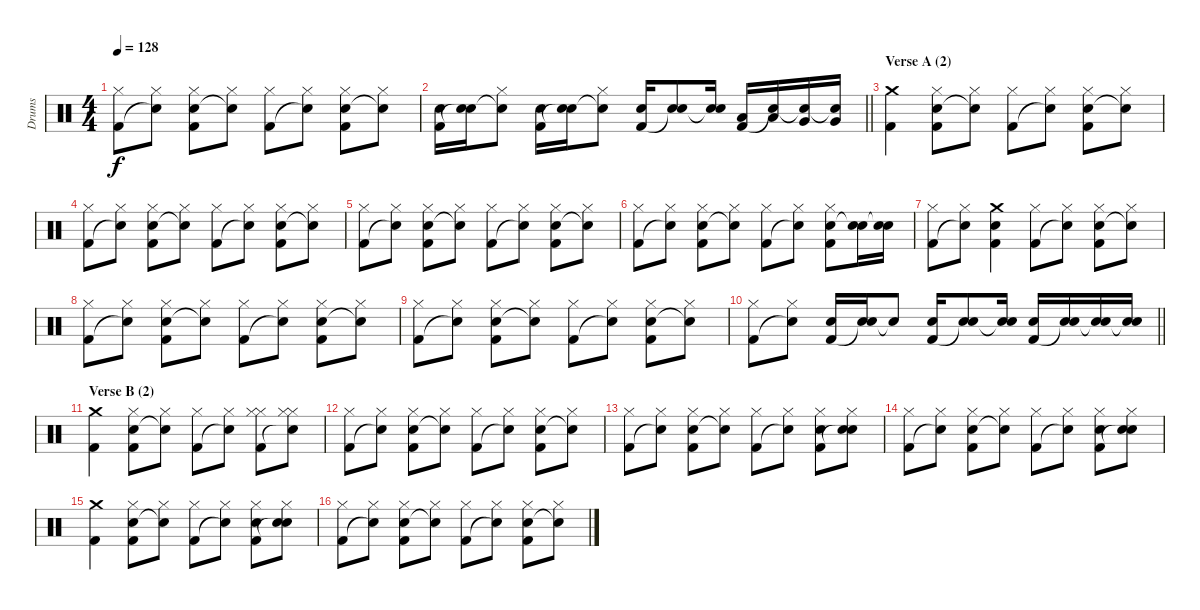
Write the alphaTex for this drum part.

\track ("Drums" "Drums") {instrument percussion}
\staff {score}
\articulation defaults
\ts (4 4)
\tempo 128
\clef neutral
\ks aminor
("Hi-Hat (closed)" "Kick (hit) 2").8{dy f} ("Hi-Hat (closed)" "Snare (hit)"{t}).8 ("Hi-Hat (closed)" "Electric Snare (hit)" "Kick (hit) 2").8 ("Hi-Hat (closed)" "Snare (hit)"{t}).8 ("Hi-Hat (closed)" "Kick (hit) 2").8 ("Hi-Hat (closed)" "Snare (hit)"{t}).8 ("Hi-Hat (closed)" "Electric Snare (hit)" "Kick (hit) 2").8 ("Hi-Hat (closed)" "Snare (hit)"{t}).8 |
\barLineRight lightlight
("Electric Snare (hit)" "Kick (hit) 2").16 ("Electric Snare (hit)" "Snare (hit)"{t}).16 ("Hi-Hat (closed)" "Snare (hit)"{t}).8 ("Electric Snare (hit)" "Kick (hit) 2").16 ("Electric Snare (hit)" "Snare (hit)"{t}).16 ("Hi-Hat (closed)" "Snare (hit)"{t}).8 ("Electric Snare (hit)" "Kick (hit) 2").16 ("Electric Snare (hit)" "Snare (hit)"{t}).8 ("Electric Snare (hit)" "Snare (hit)"{t}).16 ("Low Tom (hit)" "Kick (hit) 2").16 ("Low Tom (hit)" "Snare (hit)"{t}).16 ("Very Low Tom (hit)" "Snare (hit)"{t}).16 ("Very Low Tom (hit)" "Snare (hit)"{t}).16 |
\section ("" "Verse A (2)")
("Crash medium (hit)" "Kick (hit) 2").4 ("Hi-Hat (closed)" "Electric Snare (hit)" "Kick (hit) 2").8 ("Hi-Hat (closed)" "Snare (hit)"{t}).8 ("Hi-Hat (closed)" "Kick (hit) 2").8 ("Hi-Hat (closed)" "Snare (hit)"{t}).8 ("Hi-Hat (closed)" "Electric Snare (hit)" "Kick (hit) 2").8 ("Hi-Hat (closed)" "Snare (hit)"{t}).8 |
("Hi-Hat (closed)" "Kick (hit) 2").8 ("Hi-Hat (closed)" "Snare (hit)"{t}).8 ("Hi-Hat (closed)" "Electric Snare (hit)" "Kick (hit) 2").8 ("Hi-Hat (closed)" "Snare (hit)"{t}).8 ("Hi-Hat (closed)" "Kick (hit) 2").8 ("Hi-Hat (closed)" "Snare (hit)"{t}).8 ("Hi-Hat (closed)" "Electric Snare (hit)" "Kick (hit) 2").8 ("Hi-Hat (closed)" "Snare (hit)"{t}).8 |
("Hi-Hat (closed)" "Kick (hit) 2").8 ("Hi-Hat (closed)" "Snare (hit)"{t}).8 ("Hi-Hat (closed)" "Electric Snare (hit)" "Kick (hit) 2").8 ("Hi-Hat (closed)" "Snare (hit)"{t}).8 ("Hi-Hat (closed)" "Kick (hit) 2").8 ("Hi-Hat (closed)" "Snare (hit)"{t}).8 ("Hi-Hat (closed)" "Electric Snare (hit)" "Kick (hit) 2").8 ("Hi-Hat (closed)" "Snare (hit)"{t}).8 |
("Hi-Hat (closed)" "Kick (hit) 2").8 ("Hi-Hat (closed)" "Snare (hit)"{t}).8 ("Hi-Hat (closed)" "Electric Snare (hit)" "Kick (hit) 2").8 ("Hi-Hat (closed)" "Snare (hit)"{t}).8 ("Hi-Hat (closed)" "Kick (hit) 2").8 ("Hi-Hat (closed)" "Snare (hit)"{t}).8 ("Hi-Hat (closed)" "Electric Snare (hit)" "Kick (hit) 2").8 ("Electric Snare (hit)" "Snare (hit)"{t}).16 ("Electric Snare (hit)" "Snare (hit)"{t}).16 |
("Hi-Hat (closed)" "Kick (hit) 2").8 ("Hi-Hat (closed)" "Snare (hit)"{t}).8 ("Crash medium (hit)" "Electric Snare (hit)" "Kick (hit) 2").4 ("Hi-Hat (closed)" "Kick (hit) 2").8 ("Hi-Hat (closed)" "Snare (hit)"{t}).8 ("Hi-Hat (closed)" "Electric Snare (hit)" "Kick (hit) 2").8 ("Hi-Hat (closed)" "Snare (hit)"{t}).8 |
("Hi-Hat (closed)" "Kick (hit) 2").8 ("Hi-Hat (closed)" "Snare (hit)"{t}).8 ("Hi-Hat (closed)" "Electric Snare (hit)" "Kick (hit) 2").8 ("Hi-Hat (closed)" "Snare (hit)"{t}).8 ("Hi-Hat (closed)" "Kick (hit) 2").8 ("Hi-Hat (closed)" "Snare (hit)"{t}).8 ("Hi-Hat (closed)" "Electric Snare (hit)" "Kick (hit) 2").8 ("Hi-Hat (closed)" "Snare (hit)"{t}).8 |
("Hi-Hat (closed)" "Kick (hit) 2").8 ("Hi-Hat (closed)" "Snare (hit)"{t}).8 ("Hi-Hat (closed)" "Electric Snare (hit)" "Kick (hit) 2").8 ("Hi-Hat (closed)" "Snare (hit)"{t}).8 ("Hi-Hat (closed)" "Kick (hit) 2").8 ("Hi-Hat (closed)" "Snare (hit)"{t}).8 ("Hi-Hat (closed)" "Electric Snare (hit)" "Kick (hit) 2").8 ("Hi-Hat (closed)" "Snare (hit)"{t}).8 |
\barLineRight lightlight
("Hi-Hat (closed)" "Kick (hit) 2").8 ("Hi-Hat (closed)" "Snare (hit)"{t}).8 ("Electric Snare (hit)" "Kick (hit) 2").16 ("Electric Snare (hit)" "Snare (hit)"{t}).16 "Snare (hit)"{t}.8 ("Electric Snare (hit)" "Kick (hit) 2").16 ("Electric Snare (hit)" "Snare (hit)"{t}).8 ("Electric Snare (hit)" "Snare (hit)"{t}).16 ("Electric Snare (hit)" "Kick (hit) 2").16 ("Electric Snare (hit)" "Snare (hit)"{t}).16 ("Electric Snare (hit)" "Snare (hit)"{t}).16 ("Electric Snare (hit)" "Snare (hit)"{t}).16 |
\section ("" "Verse B (2)")
("Crash medium (hit)" "Kick (hit) 2").4 ("Hi-Hat (closed)" "Electric Snare (hit)" "Kick (hit) 2").8 ("Hi-Hat (closed)" "Snare (hit)"{t}).8 ("Hi-Hat (closed)" "Kick (hit) 2").8 ("Hi-Hat (closed)" "Snare (hit)"{t}).8 ("Hi-Hat (closed)" "Hi-Hat (closed)" "Kick (hit) 2").8 ("Hi-Hat (closed)" "Hi-Hat (closed)" "Snare (hit)"{t}).8 |
("Hi-Hat (closed)" "Kick (hit) 2").8 ("Hi-Hat (closed)" "Snare (hit)"{t}).8 ("Hi-Hat (closed)" "Electric Snare (hit)" "Kick (hit) 2").8 ("Hi-Hat (closed)" "Snare (hit)"{t}).8 ("Hi-Hat (closed)" "Kick (hit) 2").8 ("Hi-Hat (closed)" "Snare (hit)"{t}).8 ("Hi-Hat (closed)" "Electric Snare (hit)" "Kick (hit) 2").8 ("Hi-Hat (closed)" "Snare (hit)"{t}).8 |
("Hi-Hat (closed)" "Kick (hit) 2").8 ("Hi-Hat (closed)" "Snare (hit)"{t}).8 ("Hi-Hat (closed)" "Electric Snare (hit)" "Kick (hit) 2").8 ("Hi-Hat (closed)" "Snare (hit)"{t}).8 ("Hi-Hat (closed)" "Kick (hit) 2").8 ("Hi-Hat (closed)" "Snare (hit)"{t}).8 ("Hi-Hat (closed)" "Electric Snare (hit)" "Kick (hit) 2").8 ("Hi-Hat (closed)" "Electric Snare (hit)" "Snare (hit)"{t}).8 |
("Hi-Hat (closed)" "Kick (hit) 2").8 ("Hi-Hat (closed)" "Snare (hit)"{t}).8 ("Hi-Hat (closed)" "Electric Snare (hit)" "Kick (hit) 2").8 ("Hi-Hat (closed)" "Snare (hit)"{t}).8 ("Hi-Hat (closed)" "Kick (hit) 2").8 ("Hi-Hat (closed)" "Snare (hit)"{t}).8 ("Hi-Hat (closed)" "Electric Snare (hit)" "Kick (hit) 2").8 ("Hi-Hat (closed)" "Electric Snare (hit)" "Snare (hit)"{t}).8 |
("Crash medium (hit)" "Kick (hit) 2").4 ("Hi-Hat (closed)" "Electric Snare (hit)" "Kick (hit) 2").8 ("Hi-Hat (closed)" "Snare (hit)"{t}).8 ("Hi-Hat (closed)" "Kick (hit) 2").8 ("Hi-Hat (closed)" "Snare (hit)"{t}).8 ("Hi-Hat (closed)" "Electric Snare (hit)" "Kick (hit) 2").8 ("Hi-Hat (closed)" "Electric Snare (hit)" "Snare (hit)"{t}).8 |
("Hi-Hat (closed)" "Kick (hit) 2").8 ("Hi-Hat (closed)" "Snare (hit)"{t}).8 ("Hi-Hat (closed)" "Electric Snare (hit)" "Kick (hit) 2").8 ("Hi-Hat (closed)" "Snare (hit)"{t}).8 ("Hi-Hat (closed)" "Kick (hit) 2").8 ("Hi-Hat (closed)" "Snare (hit)"{t}).8 ("Hi-Hat (closed)" "Electric Snare (hit)" "Kick (hit) 2").8 ("Hi-Hat (closed)" "Snare (hit)"{t}).8
